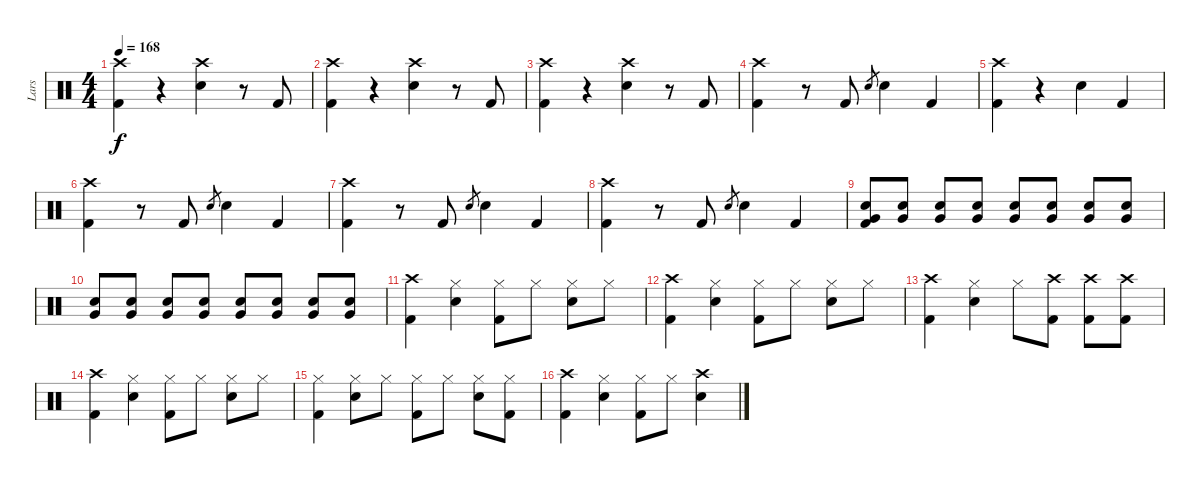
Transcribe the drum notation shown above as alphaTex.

\track ("Lars" "Lars") {instrument percussion}
\staff {score}
\articulation defaults
\ts (4 4)
\tempo 168
\clef neutral
\ks c
("Crash high (hit)" "Kick (hit) 2").4{dy f} r.4 ("Crash high (hit)" "Snare (hit) 2").4 r.8 "Kick (hit) 2".8 |
("Crash high (hit)" "Kick (hit) 2").4 r.4 ("Crash high (hit)" "Snare (hit) 2").4 r.8 "Kick (hit) 2".8 |
("Crash high (hit)" "Kick (hit) 2").4 r.4 ("Crash high (hit)" "Snare (hit) 2").4 r.8 "Kick (hit) 2".8 |
("Crash high (hit)" "Kick (hit) 2").4 r.8 "Kick (hit) 2".8 "Snare (hit) 2".8{gr} "Snare (hit) 2".4 "Kick (hit) 2".4 |
("Crash high (hit)" "Kick (hit) 2").4 r.4 "Snare (hit) 2".4 "Kick (hit) 2".4 |
("Crash high (hit)" "Kick (hit) 2").4 r.8 "Kick (hit) 2".8 "Snare (hit) 2".8{gr} "Snare (hit) 2".4 "Kick (hit) 2".4 |
("Crash high (hit)" "Kick (hit) 2").4 r.8 "Kick (hit) 2".8 "Snare (hit) 2".8{gr} "Snare (hit) 2".4 "Kick (hit) 2".4 |
("Crash high (hit)" "Kick (hit) 2").4 r.8 "Kick (hit) 2".8 "Snare (hit) 2".8{gr} "Snare (hit) 2".4 "Kick (hit) 2".4 |
("Snare (hit) 2" "Very Low Tom (hit)" "Kick (hit) 2").8 ("Snare (hit) 2" "Very Low Tom (hit)").8 ("Snare (hit) 2" "Very Low Tom (hit)").8 ("Snare (hit) 2" "Very Low Tom (hit)").8 ("Snare (hit) 2" "Very Low Tom (hit)").8 ("Snare (hit) 2" "Very Low Tom (hit)").8 ("Snare (hit) 2" "Very Low Tom (hit)").8 ("Snare (hit) 2" "Very Low Tom (hit)").8 |
("Snare (hit) 2" "Very Low Tom (hit)").8 ("Snare (hit) 2" "Very Low Tom (hit)").8 ("Snare (hit) 2" "Very Low Tom (hit)").8 ("Snare (hit) 2" "Very Low Tom (hit)").8 ("Snare (hit) 2" "Very Low Tom (hit)").8 ("Snare (hit) 2" "Very Low Tom (hit)").8 ("Snare (hit) 2" "Very Low Tom (hit)").8 ("Snare (hit) 2" "Very Low Tom (hit)").8 |
("Crash high (hit)" "Kick (hit) 2").4 ("Hi-Hat (closed)" "Snare (hit) 2").4 ("Hi-Hat (closed)" "Kick (hit) 2").8 "Hi-Hat (closed)".8 ("Hi-Hat (closed)" "Snare (hit) 2").8 "Hi-Hat (closed)".8 |
("Crash high (hit)" "Kick (hit) 2").4 ("Hi-Hat (closed)" "Snare (hit) 2").4 ("Hi-Hat (closed)" "Kick (hit) 2").8 "Hi-Hat (closed)".8 ("Hi-Hat (closed)" "Snare (hit) 2").8 "Hi-Hat (closed)".8 |
("Crash high (hit)" "Kick (hit) 2").4 ("Hi-Hat (closed)" "Snare (hit) 2").4 "Hi-Hat (closed)".8 ("Crash high (hit)" "Kick (hit) 2").8 ("Crash high (hit)" "Kick (hit) 2").8 ("Crash high (hit)" "Kick (hit) 2").8 |
("Crash high (hit)" "Kick (hit) 2").4 ("Hi-Hat (closed)" "Snare (hit) 2").4 ("Hi-Hat (closed)" "Kick (hit) 2").8 "Hi-Hat (closed)".8 ("Hi-Hat (closed)" "Snare (hit) 2").8 "Hi-Hat (closed)".8 |
("Hi-Hat (closed)" "Kick (hit) 2").4 ("Hi-Hat (closed)" "Snare (hit) 2").8 "Hi-Hat (closed)".8 ("Hi-Hat (closed)" "Kick (hit) 2").8 "Hi-Hat (closed)".8 ("Hi-Hat (closed)" "Snare (hit) 2").8 ("Hi-Hat (closed)" "Kick (hit) 2").8 |
("Crash high (hit)" "Kick (hit) 2").4 ("Hi-Hat (closed)" "Snare (hit) 2").4 ("Hi-Hat (closed)" "Kick (hit) 2").8 "Hi-Hat (closed)".8 ("Crash high (hit)" "Snare (hit) 2").4
